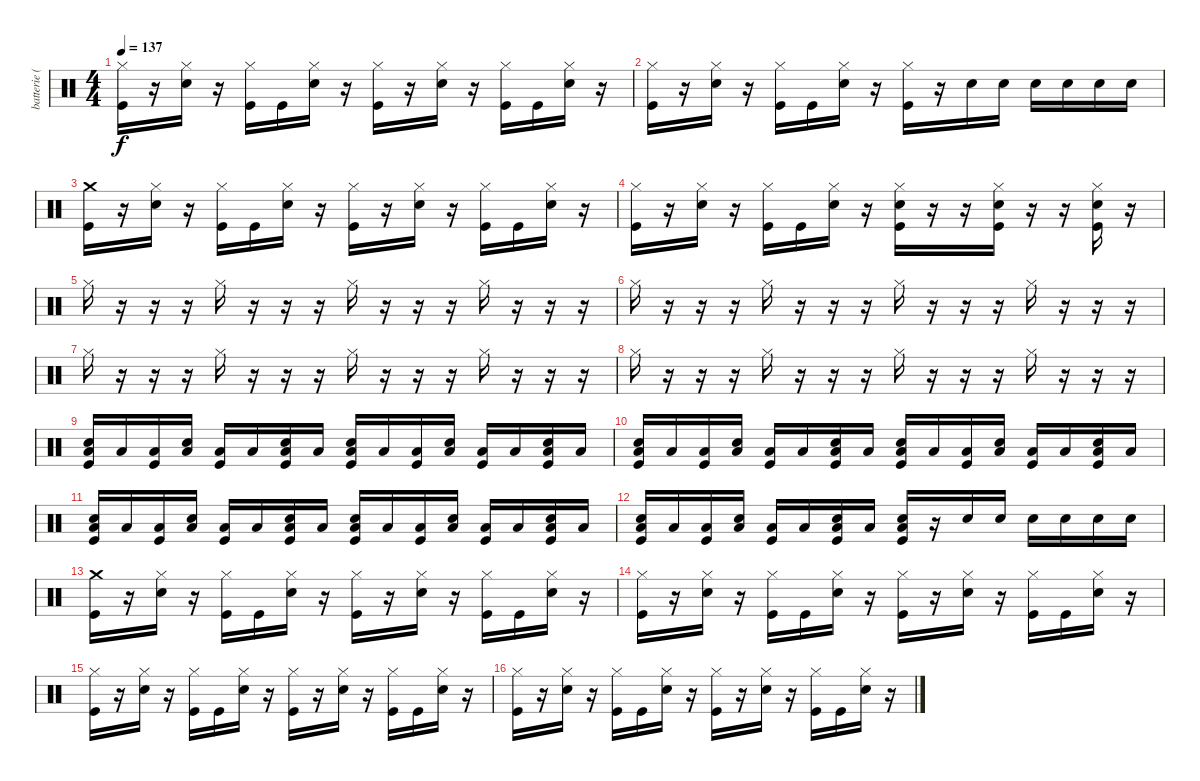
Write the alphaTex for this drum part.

\track ("batterie ( Reed ) " "batterie (") {instrument percussion}
\staff {score}
\articulation defaults
\ts (4 4)
\tempo 137
\clef neutral
\ks c
("Hi-Hat (closed)" "Kick (hit)").16{dy f} r.16 ("Hi-Hat (closed)" "Snare (hit) 2").16 r.16 ("Hi-Hat (closed)" "Kick (hit)").16 "Kick (hit)".16 ("Hi-Hat (closed)" "Snare (hit) 2").16 r.16 ("Hi-Hat (closed)" "Kick (hit)").16 r.16 ("Hi-Hat (closed)" "Snare (hit) 2").16 r.16 ("Hi-Hat (closed)" "Kick (hit)").16 "Kick (hit)".16 ("Hi-Hat (closed)" "Snare (hit) 2").16 r.16 |
("Hi-Hat (closed)" "Kick (hit)").16 r.16 ("Hi-Hat (closed)" "Snare (hit) 2").16 r.16 ("Hi-Hat (closed)" "Kick (hit)").16 "Kick (hit)".16 ("Hi-Hat (closed)" "Snare (hit) 2").16 r.16 ("Hi-Hat (closed)" "Kick (hit)").16 r.16 "Snare (hit) 2".16 "Snare (hit) 2".16 "Snare (hit) 2".16 "Snare (hit) 2".16 "Snare (hit) 2".16 "Snare (hit) 2".16 |
("Crash medium (hit)" "Kick (hit)").16 r.16 ("Hi-Hat (closed)" "Snare (hit) 2").16 r.16 ("Hi-Hat (closed)" "Kick (hit)").16 "Kick (hit)".16 ("Hi-Hat (closed)" "Snare (hit) 2").16 r.16 ("Hi-Hat (closed)" "Kick (hit)").16 r.16 ("Hi-Hat (closed)" "Snare (hit) 2").16 r.16 ("Hi-Hat (closed)" "Kick (hit)").16 "Kick (hit)".16 ("Hi-Hat (closed)" "Snare (hit) 2").16 r.16 |
("Hi-Hat (closed)" "Kick (hit)").16 r.16 ("Hi-Hat (closed)" "Snare (hit) 2").16 r.16 ("Hi-Hat (closed)" "Kick (hit)").16 "Kick (hit)".16 ("Hi-Hat (closed)" "Snare (hit) 2").16 r.16 ("Hi-Hat (closed)" "Snare (hit) 2" "Kick (hit)").16 r.16 r.16 ("Hi-Hat (closed)" "Snare (hit) 2" "Kick (hit)").16 r.16 r.16 ("Hi-Hat (closed)" "Snare (hit) 2" "Kick (hit)").16 r.16 |
"Hi-Hat (closed)".16 r.16 r.16 r.16 "Hi-Hat (closed)".16 r.16 r.16 r.16 "Hi-Hat (closed)".16 r.16 r.16 r.16 "Hi-Hat (closed)".16 r.16 r.16 r.16 |
"Hi-Hat (closed)".16 r.16 r.16 r.16 "Hi-Hat (closed)".16 r.16 r.16 r.16 "Hi-Hat (closed)".16 r.16 r.16 r.16 "Hi-Hat (closed)".16 r.16 r.16 r.16 |
"Hi-Hat (closed)".16 r.16 r.16 r.16 "Hi-Hat (closed)".16 r.16 r.16 r.16 "Hi-Hat (closed)".16 r.16 r.16 r.16 "Hi-Hat (closed)".16 r.16 r.16 r.16 |
"Hi-Hat (closed)".16 r.16 r.16 r.16 "Hi-Hat (closed)".16 r.16 r.16 r.16 "Hi-Hat (closed)".16 r.16 r.16 r.16 "Hi-Hat (closed)".16 r.16 r.16 r.16 |
("Low Floor Tom (hit)" "Snare (hit) 2" "Kick (hit)").16 "Low Floor Tom (hit)".16 ("Low Floor Tom (hit)" "Kick (hit)").16 ("Low Floor Tom (hit)" "Snare (hit) 2").16 ("Low Floor Tom (hit)" "Kick (hit)").16 "Low Floor Tom (hit)".16 ("Low Floor Tom (hit)" "Snare (hit) 2" "Kick (hit)").16 "Low Floor Tom (hit)".16 ("Low Floor Tom (hit)" "Snare (hit) 2" "Kick (hit)").16 "Low Floor Tom (hit)".16 ("Low Floor Tom (hit)" "Kick (hit)").16 ("Low Floor Tom (hit)" "Snare (hit) 2").16 ("Low Floor Tom (hit)" "Kick (hit)").16 "Low Floor Tom (hit)".16 ("Low Floor Tom (hit)" "Snare (hit) 2" "Kick (hit)").16 "Low Floor Tom (hit)".16 |
("Low Floor Tom (hit)" "Snare (hit) 2" "Kick (hit)").16 "Low Floor Tom (hit)".16 ("Low Floor Tom (hit)" "Kick (hit)").16 ("Low Floor Tom (hit)" "Snare (hit) 2").16 ("Low Floor Tom (hit)" "Kick (hit)").16 "Low Floor Tom (hit)".16 ("Low Floor Tom (hit)" "Snare (hit) 2" "Kick (hit)").16 "Low Floor Tom (hit)".16 ("Low Floor Tom (hit)" "Snare (hit) 2" "Kick (hit)").16 "Low Floor Tom (hit)".16 ("Low Floor Tom (hit)" "Kick (hit)").16 ("Low Floor Tom (hit)" "Snare (hit) 2").16 ("Low Floor Tom (hit)" "Kick (hit)").16 "Low Floor Tom (hit)".16 ("Low Floor Tom (hit)" "Snare (hit) 2" "Kick (hit)").16 "Low Floor Tom (hit)".16 |
("Low Floor Tom (hit)" "Snare (hit) 2" "Kick (hit)").16 "Low Floor Tom (hit)".16 ("Low Floor Tom (hit)" "Kick (hit)").16 ("Low Floor Tom (hit)" "Snare (hit) 2").16 ("Low Floor Tom (hit)" "Kick (hit)").16 "Low Floor Tom (hit)".16 ("Low Floor Tom (hit)" "Snare (hit) 2" "Kick (hit)").16 "Low Floor Tom (hit)".16 ("Low Floor Tom (hit)" "Snare (hit) 2" "Kick (hit)").16 "Low Floor Tom (hit)".16 ("Low Floor Tom (hit)" "Kick (hit)").16 ("Low Floor Tom (hit)" "Snare (hit) 2").16 ("Low Floor Tom (hit)" "Kick (hit)").16 "Low Floor Tom (hit)".16 ("Low Floor Tom (hit)" "Snare (hit) 2" "Kick (hit)").16 "Low Floor Tom (hit)".16 |
("Low Floor Tom (hit)" "Snare (hit) 2" "Kick (hit)").16 "Low Floor Tom (hit)".16 ("Low Floor Tom (hit)" "Kick (hit)").16 ("Low Floor Tom (hit)" "Snare (hit) 2").16 ("Low Floor Tom (hit)" "Kick (hit)").16 "Low Floor Tom (hit)".16 ("Low Floor Tom (hit)" "Snare (hit) 2" "Kick (hit)").16 "Low Floor Tom (hit)".16 ("Low Floor Tom (hit)" "Snare (hit) 2" "Kick (hit)").16 r.16 "Snare (hit) 2".16 "Snare (hit) 2".16 "Snare (hit) 2".16 "Snare (hit) 2".16 "Snare (hit) 2".16 "Snare (hit) 2".16 |
("Crash medium (hit)" "Kick (hit)").16 r.16 ("Hi-Hat (closed)" "Snare (hit) 2").16 r.16 ("Hi-Hat (closed)" "Kick (hit)").16 "Kick (hit)".16 ("Hi-Hat (closed)" "Snare (hit) 2").16 r.16 ("Hi-Hat (closed)" "Kick (hit)").16 r.16 ("Hi-Hat (closed)" "Snare (hit) 2").16 r.16 ("Hi-Hat (closed)" "Kick (hit)").16 "Kick (hit)".16 ("Hi-Hat (closed)" "Snare (hit) 2").16 r.16 |
("Hi-Hat (closed)" "Kick (hit)").16 r.16 ("Hi-Hat (closed)" "Snare (hit) 2").16 r.16 ("Hi-Hat (closed)" "Kick (hit)").16 "Kick (hit)".16 ("Hi-Hat (closed)" "Snare (hit) 2").16 r.16 ("Hi-Hat (closed)" "Kick (hit)").16 r.16 ("Hi-Hat (closed)" "Snare (hit) 2").16 r.16 ("Hi-Hat (closed)" "Kick (hit)").16 "Kick (hit)".16 ("Hi-Hat (closed)" "Snare (hit) 2").16 r.16 |
("Hi-Hat (closed)" "Kick (hit)").16 r.16 ("Hi-Hat (closed)" "Snare (hit) 2").16 r.16 ("Hi-Hat (closed)" "Kick (hit)").16 "Kick (hit)".16 ("Hi-Hat (closed)" "Snare (hit) 2").16 r.16 ("Hi-Hat (closed)" "Kick (hit)").16 r.16 ("Hi-Hat (closed)" "Snare (hit) 2").16 r.16 ("Hi-Hat (closed)" "Kick (hit)").16 "Kick (hit)".16 ("Hi-Hat (closed)" "Snare (hit) 2").16 r.16 |
("Hi-Hat (closed)" "Kick (hit)").16 r.16 ("Hi-Hat (closed)" "Snare (hit) 2").16 r.16 ("Hi-Hat (closed)" "Kick (hit)").16 "Kick (hit)".16 ("Hi-Hat (closed)" "Snare (hit) 2").16 r.16 ("Hi-Hat (closed)" "Kick (hit)").16 r.16 ("Hi-Hat (closed)" "Snare (hit) 2").16 r.16 ("Hi-Hat (closed)" "Kick (hit)").16 "Kick (hit)".16 ("Hi-Hat (closed)" "Snare (hit) 2").16 r.16
